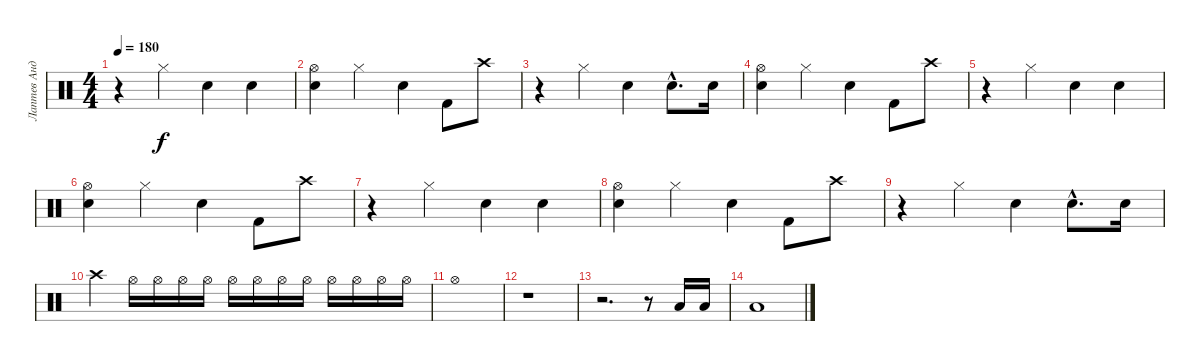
\track ("Лаптев Андрей" "Лаптев Анд") {instrument percussion}
\staff {score}
\articulation defaults
\ts (4 4)
\tempo 180
\clef neutral
\ks c
r.4{dy f} "Hi-Hat (closed)".4 "Snare (hit) 2".4 "Snare (hit) 2".4 |
("Snare (hit) 2" "Hi-Hat (open)").4 "Hi-Hat (closed)".4 "Snare (hit) 2".4 "Kick (hit) 2".8 "Crash high (hit)".8 |
r.4 "Hi-Hat (closed)".4 "Snare (hit) 2".4 "Snare (hit) 2"{hac}.8{d} "Snare (hit) 2".16 |
("Snare (hit) 2" "Hi-Hat (open)").4 "Hi-Hat (closed)".4 "Snare (hit) 2".4 "Kick (hit) 2".8 "Crash high (hit)".8 |
r.4 "Hi-Hat (closed)".4 "Snare (hit) 2".4 "Snare (hit) 2".4 |
("Snare (hit) 2" "Hi-Hat (open)").4 "Hi-Hat (closed)".4 "Snare (hit) 2".4 "Kick (hit) 2".8 "Crash high (hit)".8 |
r.4 "Hi-Hat (closed)".4 "Snare (hit) 2".4 "Snare (hit) 2".4 |
("Snare (hit) 2" "Hi-Hat (open)").4 "Hi-Hat (closed)".4 "Snare (hit) 2".4 "Kick (hit) 2".8 "Crash high (hit)".8 |
r.4 "Hi-Hat (closed)".4 "Snare (hit) 2".4 "Snare (hit) 2"{hac}.8{d} "Snare (hit) 2".16 |
"Crash high (hit)".4 "Hi-Hat (open)".16 "Hi-Hat (open)".16 "Hi-Hat (open)".16 "Hi-Hat (open)".16 "Hi-Hat (open)".16 "Hi-Hat (open)".16 "Hi-Hat (open)".16 "Hi-Hat (open)".16 "Hi-Hat (open)".16 "Hi-Hat (open)".16 "Hi-Hat (open)".16 "Hi-Hat (open)".16 |
"Hi-Hat (open)".1 |
r.1 |
r.2{d} r.8 "Low Tom (hit)".16 "Low Tom (hit)".16 |
"Low Tom (hit)".1
